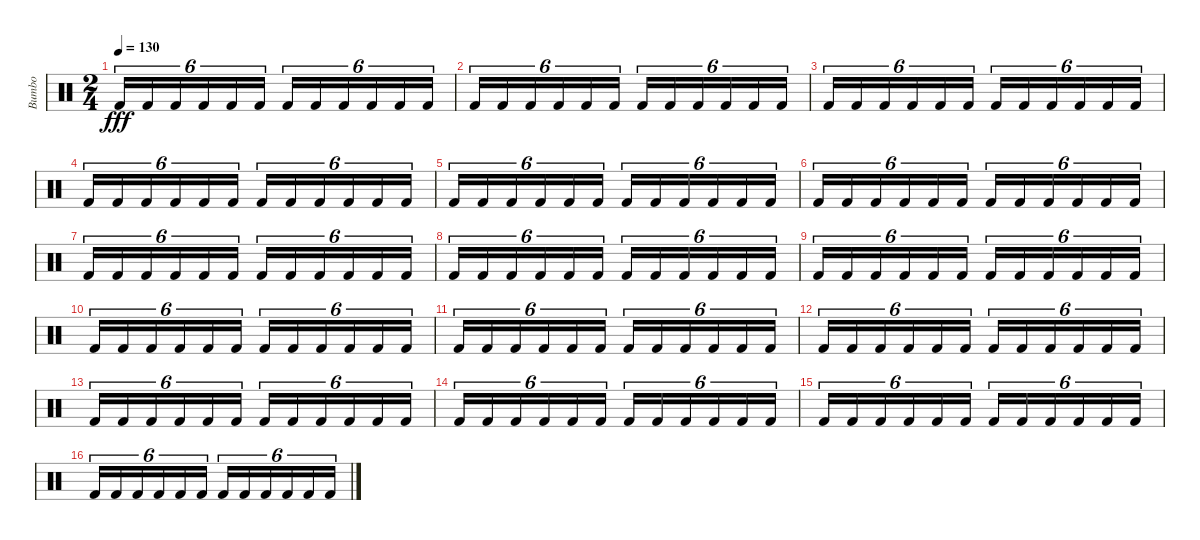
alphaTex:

\track ("Bumbo" "Bumbo") {instrument percussion}
\staff {score}
\articulation defaults
\ts (2 4)
\tempo 130
\clef neutral
\ks c "Kick (hit) 2".16{tu (6 4) dy fff} "Kick (hit) 2".16{tu (6 4)} "Kick (hit) 2".16{tu (6 4)} "Kick (hit) 2".16{tu (6 4)} "Kick (hit) 2".16{tu (6 4)} "Kick (hit) 2".16{tu (6 4)} "Kick (hit) 2".16{tu (6 4)} "Kick (hit) 2".16{tu (6 4)} "Kick (hit) 2".16{tu (6 4)} "Kick (hit) 2".16{tu (6 4)} "Kick (hit) 2".16{tu (6 4)} "Kick (hit) 2".16{tu (6 4)}
|
"Kick (hit) 2".16{tu (6 4)} "Kick (hit) 2".16{tu (6 4)} "Kick (hit) 2".16{tu (6 4)} "Kick (hit) 2".16{tu (6 4)} "Kick (hit) 2".16{tu (6 4)} "Kick (hit) 2".16{tu (6 4)} "Kick (hit) 2".16{tu (6 4)} "Kick (hit) 2".16{tu (6 4)} "Kick (hit) 2".16{tu (6 4)} "Kick (hit) 2".16{tu (6 4)} "Kick (hit) 2".16{tu (6 4)} "Kick (hit) 2".16{tu (6 4)} |
"Kick (hit) 2".16{tu (6 4)} "Kick (hit) 2".16{tu (6 4)} "Kick (hit) 2".16{tu (6 4)} "Kick (hit) 2".16{tu (6 4)} "Kick (hit) 2".16{tu (6 4)} "Kick (hit) 2".16{tu (6 4)} "Kick (hit) 2".16{tu (6 4)} "Kick (hit) 2".16{tu (6 4)} "Kick (hit) 2".16{tu (6 4)} "Kick (hit) 2".16{tu (6 4)} "Kick (hit) 2".16{tu (6 4)} "Kick (hit) 2".16{tu (6 4)} |
"Kick (hit) 2".16{tu (6 4)} "Kick (hit) 2".16{tu (6 4)} "Kick (hit) 2".16{tu (6 4)} "Kick (hit) 2".16{tu (6 4)} "Kick (hit) 2".16{tu (6 4)} "Kick (hit) 2".16{tu (6 4)} "Kick (hit) 2".16{tu (6 4)} "Kick (hit) 2".16{tu (6 4)} "Kick (hit) 2".16{tu (6 4)} "Kick (hit) 2".16{tu (6 4)} "Kick (hit) 2".16{tu (6 4)} "Kick (hit) 2".16{tu (6 4)} |
"Kick (hit) 2".16{tu (6 4)} "Kick (hit) 2".16{tu (6 4)} "Kick (hit) 2".16{tu (6 4)} "Kick (hit) 2".16{tu (6 4)} "Kick (hit) 2".16{tu (6 4)} "Kick (hit) 2".16{tu (6 4)} "Kick (hit) 2".16{tu (6 4)} "Kick (hit) 2".16{tu (6 4)} "Kick (hit) 2".16{tu (6 4)} "Kick (hit) 2".16{tu (6 4)} "Kick (hit) 2".16{tu (6 4)} "Kick (hit) 2".16{tu (6 4)} |
"Kick (hit) 2".16{tu (6 4)} "Kick (hit) 2".16{tu (6 4)} "Kick (hit) 2".16{tu (6 4)} "Kick (hit) 2".16{tu (6 4)} "Kick (hit) 2".16{tu (6 4)} "Kick (hit) 2".16{tu (6 4)} "Kick (hit) 2".16{tu (6 4)} "Kick (hit) 2".16{tu (6 4)} "Kick (hit) 2".16{tu (6 4)} "Kick (hit) 2".16{tu (6 4)} "Kick (hit) 2".16{tu (6 4)} "Kick (hit) 2".16{tu (6 4)} |
"Kick (hit) 2".16{tu (6 4)} "Kick (hit) 2".16{tu (6 4)} "Kick (hit) 2".16{tu (6 4)} "Kick (hit) 2".16{tu (6 4)} "Kick (hit) 2".16{tu (6 4)} "Kick (hit) 2".16{tu (6 4)} "Kick (hit) 2".16{tu (6 4)} "Kick (hit) 2".16{tu (6 4)} "Kick (hit) 2".16{tu (6 4)} "Kick (hit) 2".16{tu (6 4)} "Kick (hit) 2".16{tu (6 4)} "Kick (hit) 2".16{tu (6 4)} |
"Kick (hit) 2".16{tu (6 4)} "Kick (hit) 2".16{tu (6 4)} "Kick (hit) 2".16{tu (6 4)} "Kick (hit) 2".16{tu (6 4)} "Kick (hit) 2".16{tu (6 4)} "Kick (hit) 2".16{tu (6 4)} "Kick (hit) 2".16{tu (6 4)} "Kick (hit) 2".16{tu (6 4)} "Kick (hit) 2".16{tu (6 4)} "Kick (hit) 2".16{tu (6 4)} "Kick (hit) 2".16{tu (6 4)} "Kick (hit) 2".16{tu (6 4)} |
"Kick (hit) 2".16{tu (6 4)} "Kick (hit) 2".16{tu (6 4)} "Kick (hit) 2".16{tu (6 4)} "Kick (hit) 2".16{tu (6 4)} "Kick (hit) 2".16{tu (6 4)} "Kick (hit) 2".16{tu (6 4)} "Kick (hit) 2".16{tu (6 4)} "Kick (hit) 2".16{tu (6 4)} "Kick (hit) 2".16{tu (6 4)} "Kick (hit) 2".16{tu (6 4)} "Kick (hit) 2".16{tu (6 4)} "Kick (hit) 2".16{tu (6 4)} |
"Kick (hit) 2".16{tu (6 4)} "Kick (hit) 2".16{tu (6 4)} "Kick (hit) 2".16{tu (6 4)} "Kick (hit) 2".16{tu (6 4)} "Kick (hit) 2".16{tu (6 4)} "Kick (hit) 2".16{tu (6 4)} "Kick (hit) 2".16{tu (6 4)} "Kick (hit) 2".16{tu (6 4)} "Kick (hit) 2".16{tu (6 4)} "Kick (hit) 2".16{tu (6 4)} "Kick (hit) 2".16{tu (6 4)} "Kick (hit) 2".16{tu (6 4)} |
"Kick (hit) 2".16{tu (6 4)} "Kick (hit) 2".16{tu (6 4)} "Kick (hit) 2".16{tu (6 4)} "Kick (hit) 2".16{tu (6 4)} "Kick (hit) 2".16{tu (6 4)} "Kick (hit) 2".16{tu (6 4)} "Kick (hit) 2".16{tu (6 4)} "Kick (hit) 2".16{tu (6 4)} "Kick (hit) 2".16{tu (6 4)} "Kick (hit) 2".16{tu (6 4)} "Kick (hit) 2".16{tu (6 4)} "Kick (hit) 2".16{tu (6 4)} |
"Kick (hit) 2".16{tu (6 4)} "Kick (hit) 2".16{tu (6 4)} "Kick (hit) 2".16{tu (6 4)} "Kick (hit) 2".16{tu (6 4)} "Kick (hit) 2".16{tu (6 4)} "Kick (hit) 2".16{tu (6 4)} "Kick (hit) 2".16{tu (6 4)} "Kick (hit) 2".16{tu (6 4)} "Kick (hit) 2".16{tu (6 4)} "Kick (hit) 2".16{tu (6 4)} "Kick (hit) 2".16{tu (6 4)} "Kick (hit) 2".16{tu (6 4)} |
"Kick (hit) 2".16{tu (6 4)} "Kick (hit) 2".16{tu (6 4)} "Kick (hit) 2".16{tu (6 4)} "Kick (hit) 2".16{tu (6 4)} "Kick (hit) 2".16{tu (6 4)} "Kick (hit) 2".16{tu (6 4)} "Kick (hit) 2".16{tu (6 4)} "Kick (hit) 2".16{tu (6 4)} "Kick (hit) 2".16{tu (6 4)} "Kick (hit) 2".16{tu (6 4)} "Kick (hit) 2".16{tu (6 4)} "Kick (hit) 2".16{tu (6 4)} |
"Kick (hit) 2".16{tu (6 4)} "Kick (hit) 2".16{tu (6 4)} "Kick (hit) 2".16{tu (6 4)} "Kick (hit) 2".16{tu (6 4)} "Kick (hit) 2".16{tu (6 4)} "Kick (hit) 2".16{tu (6 4)} "Kick (hit) 2".16{tu (6 4)} "Kick (hit) 2".16{tu (6 4)} "Kick (hit) 2".16{tu (6 4)} "Kick (hit) 2".16{tu (6 4)} "Kick (hit) 2".16{tu (6 4)} "Kick (hit) 2".16{tu (6 4)} |
"Kick (hit) 2".16{tu (6 4)} "Kick (hit) 2".16{tu (6 4)} "Kick (hit) 2".16{tu (6 4)} "Kick (hit) 2".16{tu (6 4)} "Kick (hit) 2".16{tu (6 4)} "Kick (hit) 2".16{tu (6 4)} "Kick (hit) 2".16{tu (6 4)} "Kick (hit) 2".16{tu (6 4)} "Kick (hit) 2".16{tu (6 4)} "Kick (hit) 2".16{tu (6 4)} "Kick (hit) 2".16{tu (6 4)} "Kick (hit) 2".16{tu (6 4)} |
"Kick (hit) 2".16{tu (6 4)} "Kick (hit) 2".16{tu (6 4)} "Kick (hit) 2".16{tu (6 4)} "Kick (hit) 2".16{tu (6 4)} "Kick (hit) 2".16{tu (6 4)} "Kick (hit) 2".16{tu (6 4)} "Kick (hit) 2".16{tu (6 4)} "Kick (hit) 2".16{tu (6 4)} "Kick (hit) 2".16{tu (6 4)} "Kick (hit) 2".16{tu (6 4)} "Kick (hit) 2".16{tu (6 4)} "Kick (hit) 2".16{tu (6 4)}
